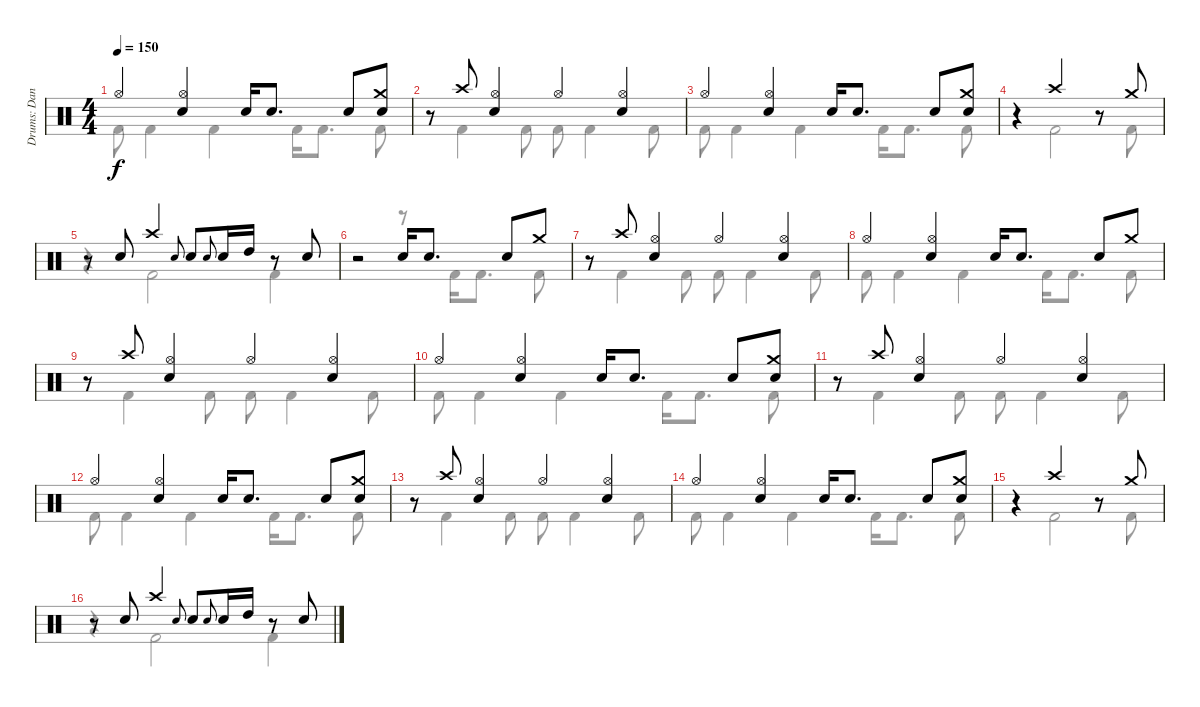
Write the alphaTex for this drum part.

\track ("Drums: Dana" "Drums: Dan") {instrument percussion}
\staff {score}
\articulation defaults
\voice
\ts (4 4)
\tempo 150
\clef neutral
\ks c "Hi-Hat (open)".4{dy f}
("Hi-Hat (open)" "Snare (hit) 2").4 "Snare (hit) 2".16 "Snare (hit) 2".8{d} "Snare (hit) 2".8 ("Crash medium (hit)" "Snare (hit) 2").8 |
r.8 "Crash high (hit)".8 ("Hi-Hat (open)" "Snare (hit) 2").4 "Hi-Hat (open)".4 ("Hi-Hat (open)" "Snare (hit) 2").4 |
"Hi-Hat (open)".4 ("Hi-Hat (open)" "Snare (hit) 2").4 "Snare (hit) 2".16 "Snare (hit) 2".8{d} "Snare (hit) 2".8 ("Crash medium (hit)" "Snare (hit) 2").8 |
r.4 "Crash high (hit)".2 r.8 "Crash medium (hit)".8 |
r.8 "Snare (hit) 2".8 "Crash high (hit)".4 "Electric Snare (hit)".8{gr onbeat} "Snare (hit) 2".8 "Electric Snare (hit)".8{gr onbeat} "Snare (hit) 2".16 "High Tom (hit)".16 r.8 "Snare (hit) 2".8 |
r.2 "Snare (hit) 2".16 "Snare (hit) 2".8{d} "Snare (hit) 2".8 "Crash medium (hit)".8 |
r.8 "Crash high (hit)".8 ("Hi-Hat (open)" "Snare (hit) 2").4 "Hi-Hat (open)".4 ("Hi-Hat (open)" "Snare (hit) 2").4 |
"Hi-Hat (open)".4 ("Hi-Hat (open)" "Snare (hit) 2").4 "Snare (hit) 2".16 "Snare (hit) 2".8{d} "Snare (hit) 2".8 "Crash medium (hit)".8 |
r.8 "Crash high (hit)".8 ("Hi-Hat (open)" "Snare (hit) 2").4 "Hi-Hat (open)".4 ("Hi-Hat (open)" "Snare (hit) 2").4 |
"Hi-Hat (open)".4 ("Hi-Hat (open)" "Snare (hit) 2").4 "Snare (hit) 2".16 "Snare (hit) 2".8{d} "Snare (hit) 2".8 ("Crash medium (hit)" "Snare (hit) 2").8 |
r.8 "Crash high (hit)".8 ("Hi-Hat (open)" "Snare (hit) 2").4 "Hi-Hat (open)".4 ("Hi-Hat (open)" "Snare (hit) 2").4 |
"Hi-Hat (open)".4 ("Hi-Hat (open)" "Snare (hit) 2").4 "Snare (hit) 2".16 "Snare (hit) 2".8{d} "Snare (hit) 2".8 ("Crash medium (hit)" "Snare (hit) 2").8 |
r.8 "Crash high (hit)".8 ("Hi-Hat (open)" "Snare (hit) 2").4 "Hi-Hat (open)".4 ("Hi-Hat (open)" "Snare (hit) 2").4 |
"Hi-Hat (open)".4 ("Hi-Hat (open)" "Snare (hit) 2").4 "Snare (hit) 2".16 "Snare (hit) 2".8{d} "Snare (hit) 2".8 ("Crash medium (hit)" "Snare (hit) 2").8 |
r.4 "Crash high (hit)".2 r.8 "Crash medium (hit)".8 |
r.8 "Snare (hit) 2".8 "Crash high (hit)".4 "Electric Snare (hit)".8{gr onbeat} "Snare (hit) 2".8 "Electric Snare (hit)".8{gr onbeat} "Snare (hit) 2".16 "High Tom (hit)".16 r.8 "Snare (hit) 2".8
\voice
\clef neutral
\ottava regular
\simile none
\ks c "Kick (hit) 2".8{dy f} "Kick (hit) 2".4 "Kick (hit) 2".4 "Kick (hit) 2".16 "Kick (hit) 2".8{d} "Kick (hit) 2".8
|
r.8 "Kick (hit) 2".4 "Kick (hit) 2".8 "Kick (hit) 2".8 "Kick (hit) 2".4 "Kick (hit) 2".8 |
"Kick (hit) 2".8 "Kick (hit) 2".4 "Kick (hit) 2".4 "Kick (hit) 2".16 "Kick (hit) 2".8{d} "Kick (hit) 2".8 |
r.4 "Kick (hit) 2".2 r.8 "Kick (hit) 2".8 |
r.4 "Kick (hit) 2".2 "Kick (hit) 2".4 |
r.2 r.8 "Kick (hit) 2".16 "Kick (hit) 2".8{d} "Kick (hit) 2".8 |
r.8 "Kick (hit) 2".4 "Kick (hit) 2".8 "Kick (hit) 2".8 "Kick (hit) 2".4 "Kick (hit) 2".8 |
"Kick (hit) 2".8 "Kick (hit) 2".4 "Kick (hit) 2".4 "Kick (hit) 2".16 "Kick (hit) 2".8{d} "Kick (hit) 2".8 |
r.8 "Kick (hit) 2".4 "Kick (hit) 2".8 "Kick (hit) 2".8 "Kick (hit) 2".4 "Kick (hit) 2".8 |
"Kick (hit) 2".8 "Kick (hit) 2".4 "Kick (hit) 2".4 "Kick (hit) 2".16 "Kick (hit) 2".8{d} "Kick (hit) 2".8 |
r.8 "Kick (hit) 2".4 "Kick (hit) 2".8 "Kick (hit) 2".8 "Kick (hit) 2".4 "Kick (hit) 2".8 |
"Kick (hit) 2".8 "Kick (hit) 2".4 "Kick (hit) 2".4 "Kick (hit) 2".16 "Kick (hit) 2".8{d} "Kick (hit) 2".8 |
r.8 "Kick (hit) 2".4 "Kick (hit) 2".8 "Kick (hit) 2".8 "Kick (hit) 2".4 "Kick (hit) 2".8 |
"Kick (hit) 2".8 "Kick (hit) 2".4 "Kick (hit) 2".4 "Kick (hit) 2".16 "Kick (hit) 2".8{d} "Kick (hit) 2".8 |
r.4 "Kick (hit) 2".2 r.8 "Kick (hit) 2".8 |
r.4 "Kick (hit) 2".2 "Kick (hit) 2".4
